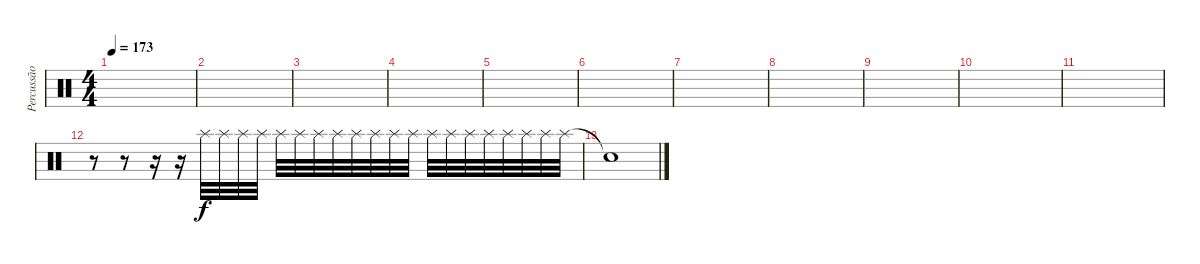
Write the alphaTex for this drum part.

\track ("Percussão" "Percussão") {instrument percussion}
\staff {score}
\articulation defaults
\ts (4 4)
\tempo 173
\clef neutral
\ks c
|
|
|
|
|
|
|
|
|
|
|
r.8 r.8 r.16 r.16 "Splash (hit)".32 "Splash (hit)".32 "Splash (hit)".32 "Splash (hit)".32 "Splash (hit)".32 "Splash (hit)".32 "Splash (hit)".32 "Splash (hit)".32 "Splash (hit)".32 "Splash (hit)".32 "Splash (hit)".32 "Splash (hit)".32 "Splash (hit)".32 "Splash (hit)".32 "Splash (hit)".32 "Splash (hit)".32 "Splash (hit)".32 "Splash (hit)".32 "Splash (hit)".32 "Splash (hit)".32 |
"Snare (hit)"{t}.1
